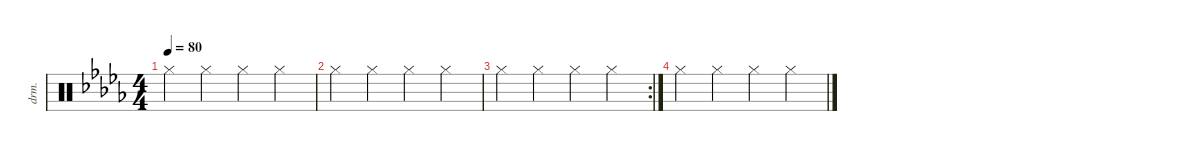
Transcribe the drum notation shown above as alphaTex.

\defaultSystemsLayout 4
\hideDynamics
\bracketExtendMode nobrackets
\track ("Drumkit" "drm.") {instrument percussion}
\staff {score}
\articulation defaults
\ts (4 4)
\tempo 80
\clef neutral
\ks db "Hi-Hat (closed)"{acc forcenatural}.4{dy mf} "Hi-Hat (closed)"{acc forcenatural}.4 "Hi-Hat (closed)"{acc forcenatural}.4 "Hi-Hat (closed)"{acc forcenatural}.4
|
"Hi-Hat (closed)"{acc forcenatural}.4 "Hi-Hat (closed)"{acc forcenatural}.4 "Hi-Hat (closed)"{acc forcenatural}.4 "Hi-Hat (closed)"{acc forcenatural}.4 |
\rc 2 "Hi-Hat (closed)"{acc forcenatural}.4 "Hi-Hat (closed)"{acc forcenatural}.4 "Hi-Hat (closed)"{acc forcenatural}.4 "Hi-Hat (closed)"{acc forcenatural}.4
|
"Hi-Hat (closed)"{acc forcenatural}.4 "Hi-Hat (closed)"{acc forcenatural}.4 "Hi-Hat (closed)"{acc forcenatural}.4 "Hi-Hat (closed)"{acc forcenatural}.4
